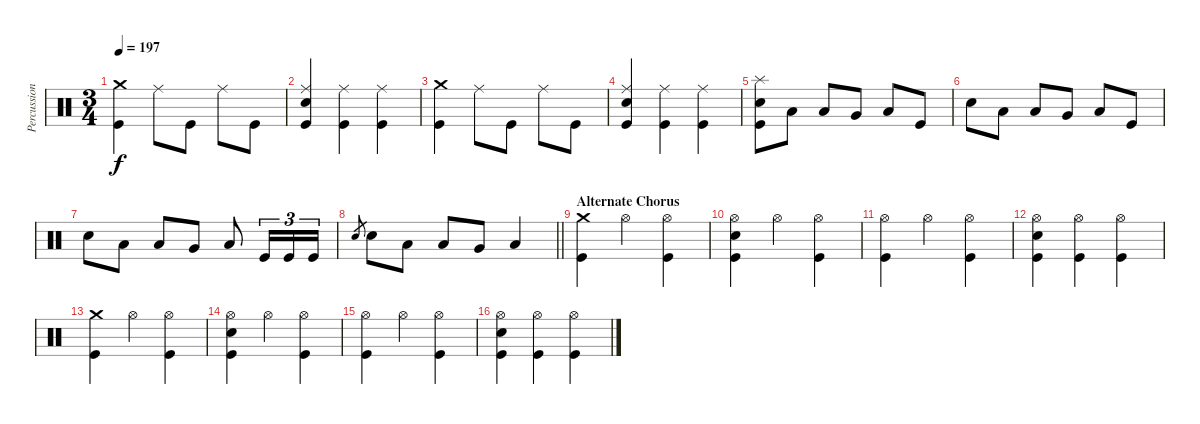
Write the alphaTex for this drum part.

\track ("Percussion" "Percussion") {instrument percussion}
\staff {score}
\articulation defaults
\ts (3 4)
\tempo 197
\clef neutral
\ks c
("Crash medium (hit)" "Kick (hit)").4{dy f} "Ride (middle)".8 "Kick (hit)".8 "Ride (middle)".8 "Kick (hit)".8 |
("Ride (middle)" "Electric Snare (hit)" "Kick (hit)").4 ("Ride (middle)" "Kick (hit)").4 ("Ride (middle)" "Kick (hit)").4 |
("Crash medium (hit)" "Kick (hit)").4 "Ride (middle)".8 "Kick (hit)".8 "Ride (middle)".8 "Kick (hit)".8 |
("Ride (middle)" "Electric Snare (hit)" "Kick (hit)").4 ("Ride (middle)" "Kick (hit)").4 ("Ride (middle)" "Kick (hit)").4 |
("Splash (hit)" "Electric Snare (hit)" "Kick (hit)").8 "Low Tom (hit)".8 "Low Tom (hit)".8 "Very Low Tom (hit)".8 "Low Tom (hit)".8 "Kick (hit)".8 |
"Electric Snare (hit)".8 "Low Tom (hit)".8 "Low Tom (hit)".8 "Very Low Tom (hit)".8 "Low Tom (hit)".8 "Kick (hit)".8 |
"Electric Snare (hit)".8 "Low Tom (hit)".8 "Low Tom (hit)".8 "Very Low Tom (hit)".8 "Low Tom (hit)".8 "Kick (hit)".16{tu (3 2)} "Kick (hit)".16{tu (3 2)} "Kick (hit)".16{tu (3 2)} |
\barLineRight lightlight "Electric Snare (hit)".8{gr} "Electric Snare (hit)".8 "Low Tom (hit)".8 "Low Tom (hit)".8 "Very Low Tom (hit)".8 "Low Tom (hit)".4
|
\section ("" "Alternate Chorus")
("Crash medium (hit)" "Kick (hit)").4 "Hi-Hat (open)".4 ("Hi-Hat (open)" "Kick (hit)").4 |
("Hi-Hat (open)" "Electric Snare (hit)" "Kick (hit)").4 "Hi-Hat (open)".4 ("Hi-Hat (open)" "Kick (hit)").4 |
("Hi-Hat (open)" "Kick (hit)").4 "Hi-Hat (open)".4 ("Hi-Hat (open)" "Kick (hit)").4 |
("Hi-Hat (open)" "Electric Snare (hit)" "Kick (hit)").4 ("Hi-Hat (open)" "Kick (hit)").4 ("Hi-Hat (open)" "Kick (hit)").4 |
("Crash medium (hit)" "Kick (hit)").4 "Hi-Hat (open)".4 ("Hi-Hat (open)" "Kick (hit)").4 |
("Hi-Hat (open)" "Electric Snare (hit)" "Kick (hit)").4 "Hi-Hat (open)".4 ("Hi-Hat (open)" "Kick (hit)").4 |
("Hi-Hat (open)" "Kick (hit)").4 "Hi-Hat (open)".4 ("Hi-Hat (open)" "Kick (hit)").4 |
("Hi-Hat (open)" "Electric Snare (hit)" "Kick (hit)").4 ("Hi-Hat (open)" "Kick (hit)").4 ("Hi-Hat (open)" "Kick (hit)").4
